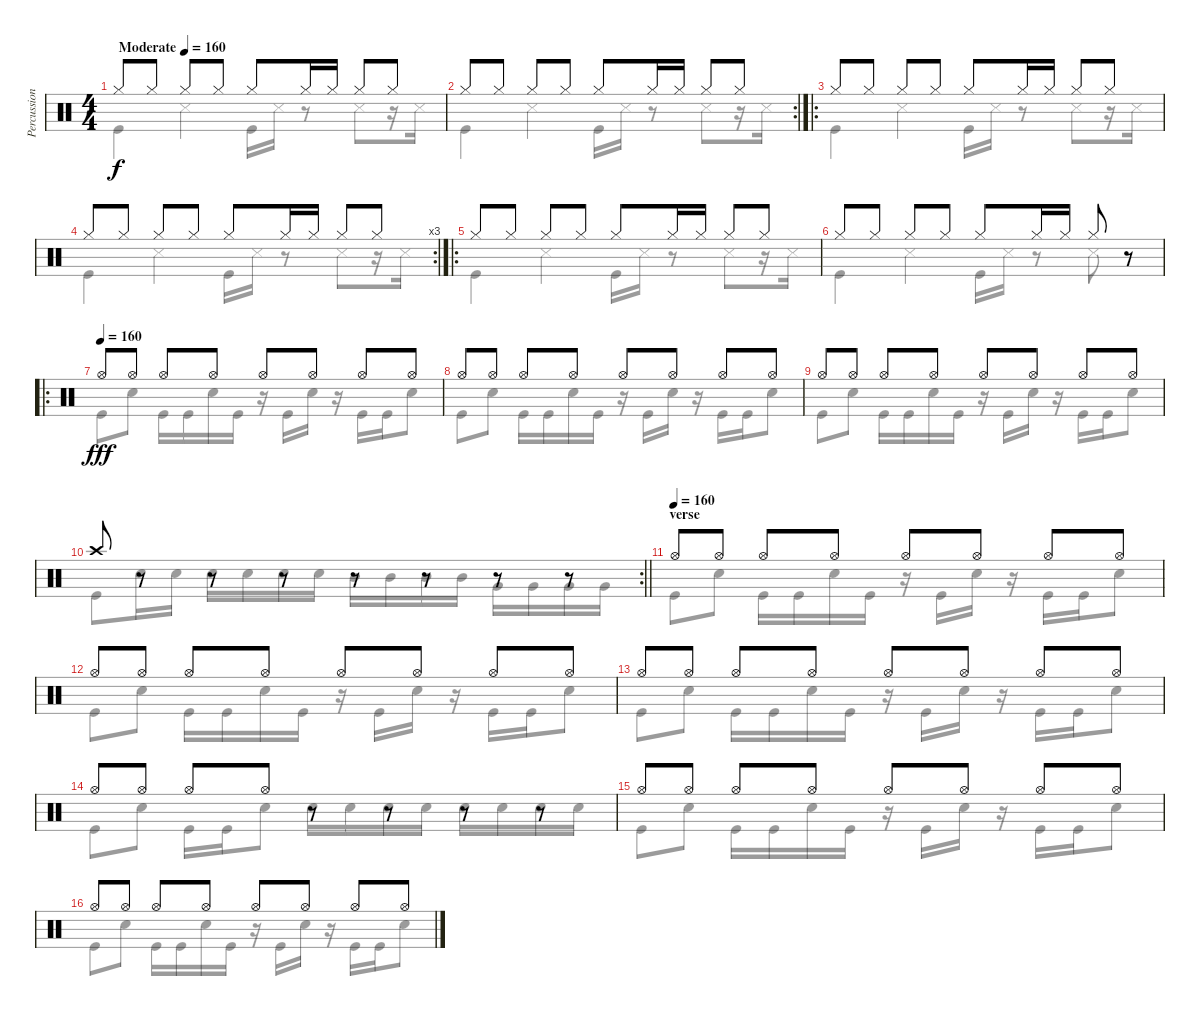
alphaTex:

\track ("Percussion" "Percussion") {instrument percussion}
\staff {score}
\articulation defaults
\voice
\ts (4 4)
\tempo (160 "Moderate")
\tempo 135
\tempo (160 "Moderate")
\clef neutral
\ks c "Hi-Hat (closed)".8{dy f} "Hi-Hat (closed)".8 "Hi-Hat (closed)".8 "Hi-Hat (closed)".8 "Hi-Hat (closed)".8 "Hi-Hat (closed)".16 "Hi-Hat (closed)".16 "Hi-Hat (closed)".8 "Hi-Hat (closed)".8
|
\rc 2 "Hi-Hat (closed)".8 "Hi-Hat (closed)".8 "Hi-Hat (closed)".8 "Hi-Hat (closed)".8 "Hi-Hat (closed)".8 "Hi-Hat (closed)".16 "Hi-Hat (closed)".16 "Hi-Hat (closed)".8 "Hi-Hat (closed)".8
|
\ro "Hi-Hat (closed)".8 "Hi-Hat (closed)".8 "Hi-Hat (closed)".8 "Hi-Hat (closed)".8 "Hi-Hat (closed)".8 "Hi-Hat (closed)".16 "Hi-Hat (closed)".16 "Hi-Hat (closed)".8 "Hi-Hat (closed)".8
|
\rc 3 "Hi-Hat (closed)".8 "Hi-Hat (closed)".8 "Hi-Hat (closed)".8 "Hi-Hat (closed)".8 "Hi-Hat (closed)".8 "Hi-Hat (closed)".16 "Hi-Hat (closed)".16 "Hi-Hat (closed)".8 "Hi-Hat (closed)".8
|
\ro "Hi-Hat (closed)".8 "Hi-Hat (closed)".8 "Hi-Hat (closed)".8 "Hi-Hat (closed)".8 "Hi-Hat (closed)".8 "Hi-Hat (closed)".16 "Hi-Hat (closed)".16 "Hi-Hat (closed)".8 "Hi-Hat (closed)".8
|
"Hi-Hat (closed)".8 "Hi-Hat (closed)".8 "Hi-Hat (closed)".8 "Hi-Hat (closed)".8 "Hi-Hat (closed)".8 "Hi-Hat (closed)".16 "Hi-Hat (closed)".16 "Hi-Hat (closed)".8 r.8 |
\ro
\tempo (160)
"Hi-Hat (open)".8{dy fff} "Hi-Hat (open)".8 "Hi-Hat (open)".8 "Hi-Hat (open)".8 "Hi-Hat (open)".8 "Hi-Hat (open)".8 "Hi-Hat (open)".8 "Hi-Hat (open)".8 |
"Hi-Hat (open)".8 "Hi-Hat (open)".8 "Hi-Hat (open)".8 "Hi-Hat (open)".8 "Hi-Hat (open)".8 "Hi-Hat (open)".8 "Hi-Hat (open)".8 "Hi-Hat (open)".8 |
"Hi-Hat (open)".8 "Hi-Hat (open)".8 "Hi-Hat (open)".8 "Hi-Hat (open)".8 "Hi-Hat (open)".8 "Hi-Hat (open)".8 "Hi-Hat (open)".8 "Hi-Hat (open)".8 |
\rc 2
\barLineRight lightlight "Crash high (hit)".8
r.8 r.8 r.8 r.8 r.8 r.8 r.8 |
\section ("" "verse")
\tempo (160)
"Hi-Hat (open)".8 "Hi-Hat (open)".8 "Hi-Hat (open)".8 "Hi-Hat (open)".8 "Hi-Hat (open)".8 "Hi-Hat (open)".8 "Hi-Hat (open)".8 "Hi-Hat (open)".8 |
"Hi-Hat (open)".8 "Hi-Hat (open)".8 "Hi-Hat (open)".8 "Hi-Hat (open)".8 "Hi-Hat (open)".8 "Hi-Hat (open)".8 "Hi-Hat (open)".8 "Hi-Hat (open)".8 |
"Hi-Hat (open)".8 "Hi-Hat (open)".8 "Hi-Hat (open)".8 "Hi-Hat (open)".8 "Hi-Hat (open)".8 "Hi-Hat (open)".8 "Hi-Hat (open)".8 "Hi-Hat (open)".8 |
"Hi-Hat (open)".8 "Hi-Hat (open)".8 "Hi-Hat (open)".8 "Hi-Hat (open)".8 r.8 r.8 r.8 r.8 |
"Hi-Hat (open)".8 "Hi-Hat (open)".8 "Hi-Hat (open)".8 "Hi-Hat (open)".8 "Hi-Hat (open)".8 "Hi-Hat (open)".8 "Hi-Hat (open)".8 "Hi-Hat (open)".8 |
"Hi-Hat (open)".8 "Hi-Hat (open)".8 "Hi-Hat (open)".8 "Hi-Hat (open)".8 "Hi-Hat (open)".8 "Hi-Hat (open)".8 "Hi-Hat (open)".8 "Hi-Hat (open)".8
\voice
\clef neutral
\ottava regular
\simile none
\ks c "Kick (hit)".4{dy f} "Snare (side stick) 3".4 "Kick (hit)".16 "Snare (side stick) 3".16
r.8 "Snare (side stick) 3".8 r.16 "Snare (side stick) 3".16 |
"Kick (hit)".4 "Snare (side stick) 3".4 "Kick (hit)".16 "Snare (side stick) 3".16 r.8 "Snare (side stick) 3".8 r.16 "Snare (side stick) 3".16 |
"Kick (hit)".4 "Snare (side stick) 3".4 "Kick (hit)".16 "Snare (side stick) 3".16 r.8 "Snare (side stick) 3".8 r.16 "Snare (side stick) 3".16 |
"Kick (hit)".4 "Snare (side stick) 3".4 "Kick (hit)".16 "Snare (side stick) 3".16 r.8 "Snare (side stick) 3".8 r.16 "Snare (side stick) 3".16 |
"Kick (hit)".4 "Snare (side stick) 3".4 "Kick (hit)".16 "Snare (side stick) 3".16 r.8 "Snare (side stick) 3".8 r.16 "Snare (side stick) 3".16 |
"Kick (hit)".4 "Snare (side stick) 3".4 "Kick (hit)".16 "Snare (side stick) 3".16 r.8 "Snare (side stick) 3".8 r.8 |
"Kick (hit)".8{dy fff} "Snare (hit) 2".8 "Kick (hit)".16 "Kick (hit)".16 "Snare (hit) 2".16 "Kick (hit)".16 r.16 "Kick (hit)".16 "Snare (hit) 2".16 r.16 "Kick (hit)".16 "Kick (hit)".16 "Snare (hit) 2".8 |
"Kick (hit)".8 "Snare (hit) 2".8 "Kick (hit)".16 "Kick (hit)".16 "Snare (hit) 2".16 "Kick (hit)".16 r.16 "Kick (hit)".16 "Snare (hit) 2".16 r.16 "Kick (hit)".16 "Kick (hit)".16 "Snare (hit) 2".8 |
"Kick (hit)".8 "Snare (hit) 2".8 "Kick (hit)".16 "Kick (hit)".16 "Snare (hit) 2".16 "Kick (hit)".16 r.16 "Kick (hit)".16 "Snare (hit) 2".16 r.16 "Kick (hit)".16 "Kick (hit)".16 "Snare (hit) 2".8 |
\barLineRight lightlight "Kick (hit)".8 "Snare (hit) 2".16 "Snare (hit) 2".16 "Snare (hit) 2".16 "Snare (hit) 2".16 "Snare (hit) 2".16 "Snare (hit) 2".16 "Mid Tom (hit)".16 "Mid Tom (hit)".16 "Mid Tom (hit)".16 "Mid Tom (hit)".16 "Very Low Tom (hit)".16 "Very Low Tom (hit)".16 "Very Low Tom (hit)".16 "Very Low Tom (hit)".16
|
"Kick (hit)".8 "Snare (hit) 2".8 "Kick (hit)".16 "Kick (hit)".16 "Snare (hit) 2".16 "Kick (hit)".16 r.16 "Kick (hit)".16 "Snare (hit) 2".16 r.16 "Kick (hit)".16 "Kick (hit)".16 "Snare (hit) 2".8 |
"Kick (hit)".8 "Snare (hit) 2".8 "Kick (hit)".16 "Kick (hit)".16 "Snare (hit) 2".16 "Kick (hit)".16 r.16 "Kick (hit)".16 "Snare (hit) 2".16 r.16 "Kick (hit)".16 "Kick (hit)".16 "Snare (hit) 2".8 |
"Kick (hit)".8 "Snare (hit) 2".8 "Kick (hit)".16 "Kick (hit)".16 "Snare (hit) 2".16 "Kick (hit)".16 r.16 "Kick (hit)".16 "Snare (hit) 2".16 r.16 "Kick (hit)".16 "Kick (hit)".16 "Snare (hit) 2".8 |
"Kick (hit)".8 "Snare (hit) 2".8 "Kick (hit)".16 "Kick (hit)".16 "Snare (hit) 2".8 "Snare (hit) 2".16 "Snare (hit) 2".16 "Snare (hit) 2".16 "Snare (hit) 2".16 "Snare (hit) 2".16 "Snare (hit) 2".16 "Snare (hit) 2".16 "Snare (hit) 2".16 |
"Kick (hit)".8 "Snare (hit) 2".8 "Kick (hit)".16 "Kick (hit)".16 "Snare (hit) 2".16 "Kick (hit)".16 r.16 "Kick (hit)".16 "Snare (hit) 2".16 r.16 "Kick (hit)".16 "Kick (hit)".16 "Snare (hit) 2".8 |
"Kick (hit)".8 "Snare (hit) 2".8 "Kick (hit)".16 "Kick (hit)".16 "Snare (hit) 2".16 "Kick (hit)".16 r.16 "Kick (hit)".16 "Snare (hit) 2".16 r.16 "Kick (hit)".16 "Kick (hit)".16 "Snare (hit) 2".8
